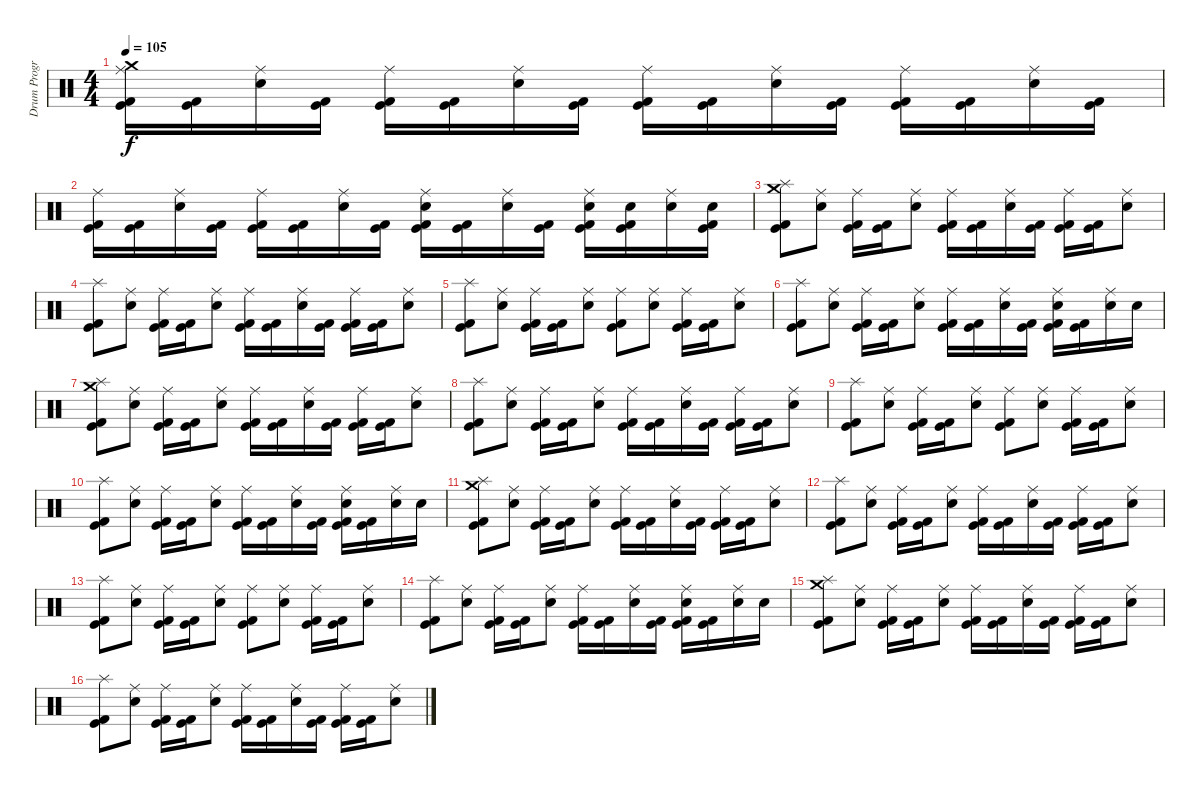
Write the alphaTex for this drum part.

\track ("Drum Program - BG" "Drum Progr") {instrument percussion}
\staff {score}
\articulation defaults
\ts (4 4)
\tempo 105
\clef neutral
\ks c
("Kick (hit)" "Kick (hit) 2" "Crash medium (hit)" "Ride (middle)").16{dy f} ("Kick (hit)" "Kick (hit) 2").16 ("Snare (hit) 2" "Ride (middle)").16 ("Kick (hit)" "Kick (hit) 2").16 ("Kick (hit)" "Kick (hit) 2" "Ride (middle)").16 ("Kick (hit)" "Kick (hit) 2").16 ("Snare (hit) 2" "Ride (middle)").16 ("Kick (hit)" "Kick (hit) 2").16 ("Kick (hit)" "Kick (hit) 2" "Ride (middle)").16 ("Kick (hit)" "Kick (hit) 2").16 ("Snare (hit) 2" "Ride (middle)").16 ("Kick (hit)" "Kick (hit) 2").16 ("Kick (hit)" "Kick (hit) 2" "Ride (middle)").16 ("Kick (hit)" "Kick (hit) 2").16 ("Snare (hit) 2" "Ride (middle)").16 ("Kick (hit)" "Kick (hit) 2").16 |
("Kick (hit)" "Kick (hit) 2" "Ride (middle)").16 ("Kick (hit)" "Kick (hit) 2").16 ("Snare (hit) 2" "Ride (middle)").16 ("Kick (hit)" "Kick (hit) 2").16 ("Kick (hit)" "Kick (hit) 2" "Ride (middle)").16 ("Kick (hit)" "Kick (hit) 2").16 ("Snare (hit) 2" "Ride (middle)").16 ("Kick (hit)" "Kick (hit) 2").16 ("Kick (hit)" "Kick (hit) 2" "Electric Snare (hit)" "Ride (middle)").16 ("Kick (hit)" "Kick (hit) 2").16 ("Electric Snare (hit)" "Ride (middle)").16 ("Kick (hit)" "Kick (hit) 2").16 ("Kick (hit)" "Kick (hit) 2" "Electric Snare (hit)" "Ride (middle)").16 ("Kick (hit)" "Kick (hit) 2" "Electric Snare (hit)").16 ("Electric Snare (hit)" "Ride (middle)").16 ("Kick (hit)" "Kick (hit) 2" "Electric Snare (hit)").16 |
("Kick (hit)" "Kick (hit) 2" "Splash (hit)" "Crash medium (hit)").8 ("Snare (hit) 2" "Ride (middle)").8 ("Kick (hit)" "Kick (hit) 2" "Ride (middle)").16 ("Kick (hit)" "Kick (hit) 2").16 ("Snare (hit) 2" "Ride (middle)").8 ("Kick (hit)" "Kick (hit) 2" "Ride (middle)").16 ("Kick (hit)" "Kick (hit) 2").16 ("Snare (hit) 2" "Ride (middle)").16 ("Kick (hit)" "Kick (hit) 2").16 ("Kick (hit)" "Kick (hit) 2" "Ride (middle)").16 ("Kick (hit)" "Kick (hit) 2").16 ("Snare (hit) 2" "Ride (middle)").8 |
("Kick (hit)" "Kick (hit) 2" "Splash (hit)").8 ("Snare (hit) 2" "Ride (middle)").8 ("Kick (hit)" "Kick (hit) 2" "Ride (middle)").16 ("Kick (hit)" "Kick (hit) 2").16 ("Snare (hit) 2" "Ride (middle)").8 ("Kick (hit)" "Kick (hit) 2" "Ride (middle)").16 ("Kick (hit)" "Kick (hit) 2").16 ("Snare (hit) 2" "Ride (middle)").16 ("Kick (hit)" "Kick (hit) 2").16 ("Kick (hit)" "Kick (hit) 2" "Ride (middle)").16 ("Kick (hit)" "Kick (hit) 2").16 ("Snare (hit) 2" "Ride (middle)").8 |
("Kick (hit)" "Kick (hit) 2" "Splash (hit)").8 ("Snare (hit) 2" "Ride (middle)").8 ("Kick (hit)" "Kick (hit) 2" "Ride (middle)").16 ("Kick (hit)" "Kick (hit) 2").16 ("Snare (hit) 2" "Ride (middle)").8 ("Kick (hit)" "Kick (hit) 2" "Ride (middle)").8 ("Snare (hit) 2" "Ride (middle)").8 ("Kick (hit)" "Kick (hit) 2" "Ride (middle)").16 ("Kick (hit)" "Kick (hit) 2").16 ("Snare (hit) 2" "Ride (middle)").8 |
("Kick (hit)" "Kick (hit) 2" "Splash (hit)").8 ("Snare (hit) 2" "Ride (middle)").8 ("Kick (hit)" "Kick (hit) 2" "Ride (middle)").16 ("Kick (hit)" "Kick (hit) 2").16 ("Snare (hit) 2" "Ride (middle)").8 ("Kick (hit)" "Kick (hit) 2" "Ride (middle)").16 ("Kick (hit)" "Kick (hit) 2").16 ("Electric Snare (hit)" "Ride (middle)").16 ("Kick (hit)" "Kick (hit) 2").16 ("Kick (hit)" "Kick (hit) 2" "Electric Snare (hit)" "Ride (middle)").16 ("Kick (hit)" "Kick (hit) 2").16 ("Electric Snare (hit)" "Ride (middle)").16 "Electric Snare (hit)".16 |
("Kick (hit)" "Kick (hit) 2" "Splash (hit)" "Crash medium (hit)").8 ("Snare (hit) 2" "Ride (middle)").8 ("Kick (hit)" "Kick (hit) 2" "Ride (middle)").16 ("Kick (hit)" "Kick (hit) 2").16 ("Snare (hit) 2" "Ride (middle)").8 ("Kick (hit)" "Kick (hit) 2" "Ride (middle)").16 ("Kick (hit)" "Kick (hit) 2").16 ("Snare (hit) 2" "Ride (middle)").16 ("Kick (hit)" "Kick (hit) 2").16 ("Kick (hit)" "Kick (hit) 2" "Ride (middle)").16 ("Kick (hit)" "Kick (hit) 2").16 ("Snare (hit) 2" "Ride (middle)").8 |
("Kick (hit)" "Kick (hit) 2" "Splash (hit)").8 ("Snare (hit) 2" "Ride (middle)").8 ("Kick (hit)" "Kick (hit) 2" "Ride (middle)").16 ("Kick (hit)" "Kick (hit) 2").16 ("Snare (hit) 2" "Ride (middle)").8 ("Kick (hit)" "Kick (hit) 2" "Ride (middle)").16 ("Kick (hit)" "Kick (hit) 2").16 ("Snare (hit) 2" "Ride (middle)").16 ("Kick (hit)" "Kick (hit) 2").16 ("Kick (hit)" "Kick (hit) 2" "Ride (middle)").16 ("Kick (hit)" "Kick (hit) 2").16 ("Snare (hit) 2" "Ride (middle)").8 |
("Kick (hit)" "Kick (hit) 2" "Splash (hit)").8 ("Snare (hit) 2" "Ride (middle)").8 ("Kick (hit)" "Kick (hit) 2" "Ride (middle)").16 ("Kick (hit)" "Kick (hit) 2").16 ("Snare (hit) 2" "Ride (middle)").8 ("Kick (hit)" "Kick (hit) 2" "Ride (middle)").8 ("Snare (hit) 2" "Ride (middle)").8 ("Kick (hit)" "Kick (hit) 2" "Ride (middle)").16 ("Kick (hit)" "Kick (hit) 2").16 ("Snare (hit) 2" "Ride (middle)").8 |
("Kick (hit)" "Kick (hit) 2" "Splash (hit)").8 ("Snare (hit) 2" "Ride (middle)").8 ("Kick (hit)" "Kick (hit) 2" "Ride (middle)").16 ("Kick (hit)" "Kick (hit) 2").16 ("Snare (hit) 2" "Ride (middle)").8 ("Kick (hit)" "Kick (hit) 2" "Ride (middle)").16 ("Kick (hit)" "Kick (hit) 2").16 ("Electric Snare (hit)" "Ride (middle)").16 ("Kick (hit)" "Kick (hit) 2").16 ("Kick (hit)" "Kick (hit) 2" "Electric Snare (hit)" "Ride (middle)").16 ("Kick (hit)" "Kick (hit) 2").16 ("Electric Snare (hit)" "Ride (middle)").16 "Electric Snare (hit)".16 |
("Kick (hit)" "Kick (hit) 2" "Splash (hit)" "Crash medium (hit)").8 ("Snare (hit) 2" "Ride (middle)").8 ("Kick (hit)" "Kick (hit) 2" "Ride (middle)").16 ("Kick (hit)" "Kick (hit) 2").16 ("Snare (hit) 2" "Ride (middle)").8 ("Kick (hit)" "Kick (hit) 2" "Ride (middle)").16 ("Kick (hit)" "Kick (hit) 2").16 ("Snare (hit) 2" "Ride (middle)").16 ("Kick (hit)" "Kick (hit) 2").16 ("Kick (hit)" "Kick (hit) 2" "Ride (middle)").16 ("Kick (hit)" "Kick (hit) 2").16 ("Snare (hit) 2" "Ride (middle)").8 |
("Kick (hit)" "Kick (hit) 2" "Splash (hit)").8 ("Snare (hit) 2" "Ride (middle)").8 ("Kick (hit)" "Kick (hit) 2" "Ride (middle)").16 ("Kick (hit)" "Kick (hit) 2").16 ("Snare (hit) 2" "Ride (middle)").8 ("Kick (hit)" "Kick (hit) 2" "Ride (middle)").16 ("Kick (hit)" "Kick (hit) 2").16 ("Snare (hit) 2" "Ride (middle)").16 ("Kick (hit)" "Kick (hit) 2").16 ("Kick (hit)" "Kick (hit) 2" "Ride (middle)").16 ("Kick (hit)" "Kick (hit) 2").16 ("Snare (hit) 2" "Ride (middle)").8 |
("Kick (hit)" "Kick (hit) 2" "Splash (hit)").8 ("Snare (hit) 2" "Ride (middle)").8 ("Kick (hit)" "Kick (hit) 2" "Ride (middle)").16 ("Kick (hit)" "Kick (hit) 2").16 ("Snare (hit) 2" "Ride (middle)").8 ("Kick (hit)" "Kick (hit) 2" "Ride (middle)").8 ("Snare (hit) 2" "Ride (middle)").8 ("Kick (hit)" "Kick (hit) 2" "Ride (middle)").16 ("Kick (hit)" "Kick (hit) 2").16 ("Snare (hit) 2" "Ride (middle)").8 |
("Kick (hit)" "Kick (hit) 2" "Splash (hit)").8 ("Snare (hit) 2" "Ride (middle)").8 ("Kick (hit)" "Kick (hit) 2" "Ride (middle)").16 ("Kick (hit)" "Kick (hit) 2").16 ("Snare (hit) 2" "Ride (middle)").8 ("Kick (hit)" "Kick (hit) 2" "Ride (middle)").16 ("Kick (hit)" "Kick (hit) 2").16 ("Electric Snare (hit)" "Ride (middle)").16 ("Kick (hit)" "Kick (hit) 2").16 ("Kick (hit)" "Kick (hit) 2" "Electric Snare (hit)" "Ride (middle)").16 ("Kick (hit)" "Kick (hit) 2").16 ("Electric Snare (hit)" "Ride (middle)").16 "Electric Snare (hit)".16 |
("Kick (hit)" "Kick (hit) 2" "Splash (hit)" "Crash medium (hit)").8 ("Snare (hit) 2" "Ride (middle)").8 ("Kick (hit)" "Kick (hit) 2" "Ride (middle)").16 ("Kick (hit)" "Kick (hit) 2").16 ("Snare (hit) 2" "Ride (middle)").8 ("Kick (hit)" "Kick (hit) 2" "Ride (middle)").16 ("Kick (hit)" "Kick (hit) 2").16 ("Snare (hit) 2" "Ride (middle)").16 ("Kick (hit)" "Kick (hit) 2").16 ("Kick (hit)" "Kick (hit) 2" "Ride (middle)").16 ("Kick (hit)" "Kick (hit) 2").16 ("Snare (hit) 2" "Ride (middle)").8 |
("Kick (hit)" "Kick (hit) 2" "Splash (hit)").8 ("Snare (hit) 2" "Ride (middle)").8 ("Kick (hit)" "Kick (hit) 2" "Ride (middle)").16 ("Kick (hit)" "Kick (hit) 2").16 ("Snare (hit) 2" "Ride (middle)").8 ("Kick (hit)" "Kick (hit) 2" "Ride (middle)").16 ("Kick (hit)" "Kick (hit) 2").16 ("Snare (hit) 2" "Ride (middle)").16 ("Kick (hit)" "Kick (hit) 2").16 ("Kick (hit)" "Kick (hit) 2" "Ride (middle)").16 ("Kick (hit)" "Kick (hit) 2").16 ("Snare (hit) 2" "Ride (middle)").8
